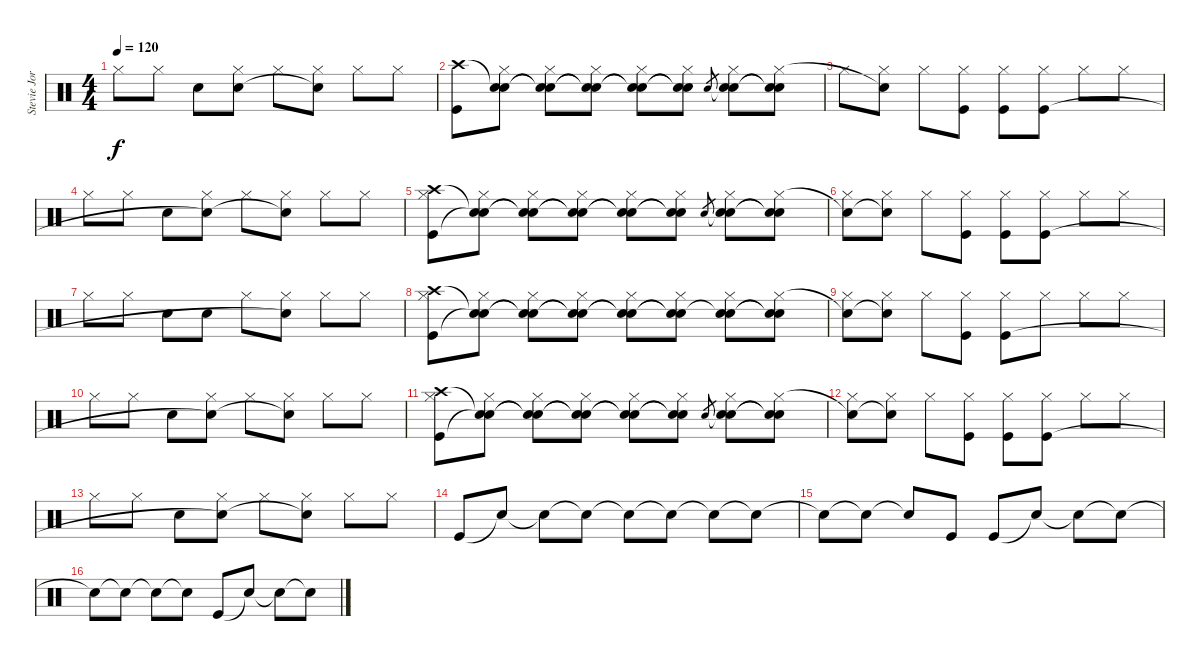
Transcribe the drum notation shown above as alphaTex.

\track ("Stevie Jordan" "Stevie Jor") {instrument percussion}
\staff {score}
\articulation defaults
\ts (4 4)
\tempo 120
\clef neutral
\ks c "Hi-Hat (closed)".8{dy f} "Hi-Hat (closed)".8 "Snare (hit) 2".8
("Hi-Hat (closed)" "Snare (hit)"{t}).8 "Hi-Hat (closed)".8 ("Hi-Hat (closed)" "Snare (hit)"{t}).8 "Hi-Hat (closed)".8 "Hi-Hat (closed)".8 |
("Crash high (hit)" "Kick (hit)").8 ("Snare (hit)"{t} "Hi-Hat (closed)" "Snare (hit)"{t}).8 ("Snare (hit)"{t} "Hi-Hat (closed)" "Snare (hit)"{t}).8 ("Snare (hit)"{t} "Hi-Hat (closed)" "Snare (hit)"{t}).8 ("Snare (hit)"{t} "Hi-Hat (closed)" "Snare (hit)"{t}).8 ("Snare (hit)"{t} "Hi-Hat (closed)" "Snare (hit)"{t}).8 "Snare (hit) 2".8{gr} ("Snare (hit)"{t} "Hi-Hat (closed)" "Snare (hit) 2").8 ("Snare (hit)"{t} "Hi-Hat (closed)" "Snare (hit)"{t}).8 |
"Hi-Hat (closed)".8 ("Hi-Hat (closed)" "Snare (hit)"{t}).8 "Hi-Hat (closed)".8 ("Hi-Hat (closed)" "Kick (hit)").8 ("Hi-Hat (closed)" "Kick (hit)").8 ("Hi-Hat (closed)" "Kick (hit)").8 "Hi-Hat (closed)".8 "Hi-Hat (closed)".8 |
"Hi-Hat (closed)".8 "Hi-Hat (closed)".8 "Snare (hit) 2".8 ("Hi-Hat (closed)" "Snare (hit)"{t}).8 "Hi-Hat (closed)".8 ("Hi-Hat (closed)" "Snare (hit)"{t}).8 "Hi-Hat (closed)".8 "Hi-Hat (closed)".8 |
("Crash high (hit)" "Hi-Hat (closed)" "Kick (hit)").8 ("Snare (hit)"{t} "Hi-Hat (closed)" "Snare (hit)"{t}).8 ("Snare (hit)"{t} "Hi-Hat (closed)" "Snare (hit)"{t}).8 ("Snare (hit)"{t} "Hi-Hat (closed)" "Snare (hit)"{t}).8 ("Snare (hit)"{t} "Hi-Hat (closed)" "Snare (hit)"{t}).8 ("Snare (hit)"{t} "Hi-Hat (closed)" "Snare (hit)"{t}).8 "Snare (hit) 2".8{gr} ("Snare (hit)"{t} "Hi-Hat (closed)" "Snare (hit) 2").8 ("Snare (hit)"{t} "Hi-Hat (closed)" "Snare (hit)"{t}).8 |
("Hi-Hat (closed)" "Snare (hit)"{t}).8 ("Hi-Hat (closed)" "Snare (hit)"{t}).8 "Hi-Hat (closed)".8 ("Hi-Hat (closed)" "Kick (hit)").8 ("Hi-Hat (closed)" "Kick (hit)").8 ("Hi-Hat (closed)" "Kick (hit)").8 "Hi-Hat (closed)".8 "Hi-Hat (closed)".8 |
"Hi-Hat (closed)".8 "Hi-Hat (closed)".8 "Snare (hit) 2".8 "Snare (hit) 2".8 "Hi-Hat (closed)".8 ("Hi-Hat (closed)" "Snare (hit)"{t}).8 "Hi-Hat (closed)".8 "Hi-Hat (closed)".8 |
("Crash high (hit)" "Hi-Hat (closed)" "Kick (hit)").8 ("Snare (hit)"{t} "Hi-Hat (closed)" "Snare (hit)"{t}).8 ("Snare (hit)"{t} "Hi-Hat (closed)" "Snare (hit)"{t}).8 ("Snare (hit)"{t} "Hi-Hat (closed)" "Snare (hit)"{t}).8 ("Snare (hit)"{t} "Hi-Hat (closed)" "Snare (hit)"{t}).8 ("Snare (hit)"{t} "Hi-Hat (closed)" "Snare (hit)"{t}).8 ("Snare (hit)"{t} "Hi-Hat (closed)" "Snare (hit) 2").8 ("Snare (hit)"{t} "Hi-Hat (closed)" "Snare (hit)"{t}).8 |
("Hi-Hat (closed)" "Snare (hit)"{t}).8 ("Hi-Hat (closed)" "Snare (hit)"{t}).8 "Hi-Hat (closed)".8 ("Hi-Hat (closed)" "Kick (hit)").8 ("Hi-Hat (closed)" "Kick (hit)").8 "Hi-Hat (closed)".8 "Hi-Hat (closed)".8 "Hi-Hat (closed)".8 |
"Hi-Hat (closed)".8 "Hi-Hat (closed)".8 "Snare (hit) 2".8 ("Hi-Hat (closed)" "Snare (hit)"{t}).8 "Hi-Hat (closed)".8 ("Hi-Hat (closed)" "Snare (hit)"{t}).8 "Hi-Hat (closed)".8 "Hi-Hat (closed)".8 |
("Crash high (hit)" "Hi-Hat (closed)" "Kick (hit)").8 ("Snare (hit)"{t} "Hi-Hat (closed)" "Snare (hit)"{t}).8 ("Snare (hit)"{t} "Hi-Hat (closed)" "Snare (hit)"{t}).8 ("Snare (hit)"{t} "Hi-Hat (closed)" "Snare (hit)"{t}).8 ("Snare (hit)"{t} "Hi-Hat (closed)" "Snare (hit)"{t}).8 ("Snare (hit)"{t} "Hi-Hat (closed)" "Snare (hit)"{t}).8 "Snare (hit) 2".8{gr} ("Snare (hit)"{t} "Hi-Hat (closed)" "Snare (hit) 2").8 ("Snare (hit)"{t} "Hi-Hat (closed)" "Snare (hit)"{t}).8 |
("Hi-Hat (closed)" "Snare (hit)"{t}).8 ("Hi-Hat (closed)" "Snare (hit)"{t}).8 "Hi-Hat (closed)".8 ("Hi-Hat (closed)" "Kick (hit)").8 ("Hi-Hat (closed)" "Kick (hit)").8 ("Hi-Hat (closed)" "Kick (hit)").8 "Hi-Hat (closed)".8 "Hi-Hat (closed)".8 |
"Hi-Hat (closed)".8 "Hi-Hat (closed)".8 "Snare (hit) 2".8 ("Hi-Hat (closed)" "Snare (hit)"{t}).8 "Hi-Hat (closed)".8 ("Hi-Hat (closed)" "Snare (hit)"{t}).8 "Hi-Hat (closed)".8 "Hi-Hat (closed)".8 |
"Kick (hit)".8 "Snare (hit)"{t}.8 "Snare (hit)"{t}.8 "Snare (hit)"{t}.8 "Snare (hit)"{t}.8 "Snare (hit)"{t}.8 "Snare (hit)"{t}.8 "Snare (hit)"{t}.8 |
"Snare (hit)"{t}.8 "Snare (hit)"{t}.8 "Snare (hit)"{t}.8 "Kick (hit)".8 "Kick (hit)".8 "Snare (hit)"{t}.8 "Snare (hit)"{t}.8 "Snare (hit)"{t}.8 |
"Snare (hit)"{t}.8 "Snare (hit)"{t}.8 "Snare (hit)"{t}.8 "Snare (hit)"{t}.8 "Kick (hit)".8 "Snare (hit)"{t}.8 "Snare (hit)"{t}.8 "Snare (hit)"{t}.8
